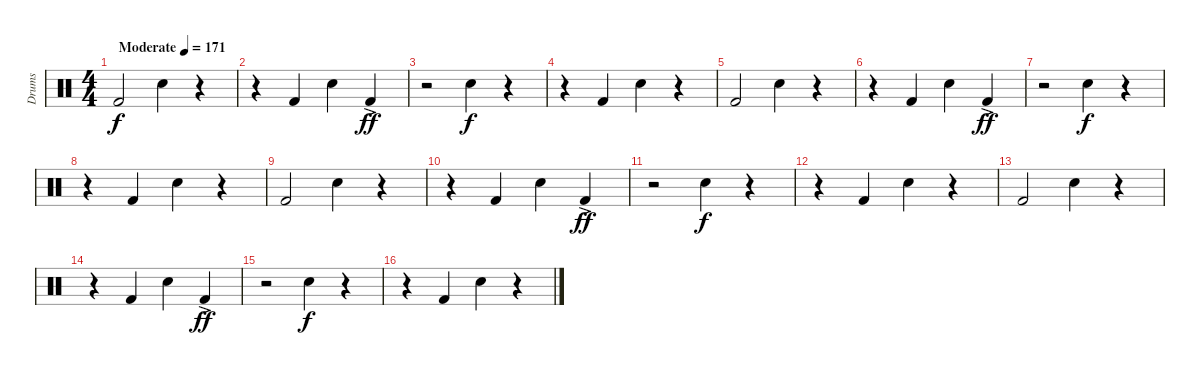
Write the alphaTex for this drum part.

\track ("Drums" "Drums") {instrument percussion}
\staff {score}
\articulation defaults
\ts (4 4)
\tempo (171 "Moderate")
\clef neutral
\ks c "Kick (hit) 2".2{dy f} "Snare (hit) 2".4
r.4 |
r.4 "Kick (hit) 2".4 "Snare (hit) 2".4 "Kick (hit) 2"{ac}.4{dy ff} |
r.2 "Snare (hit) 2".4{dy f} r.4 |
r.4 "Kick (hit) 2".4 "Snare (hit) 2".4 r.4 |
"Kick (hit) 2".2 "Snare (hit) 2".4 r.4 |
r.4 "Kick (hit) 2".4 "Snare (hit) 2".4 "Kick (hit) 2"{ac}.4{dy ff} |
r.2 "Snare (hit) 2".4{dy f} r.4 |
r.4 "Kick (hit) 2".4 "Snare (hit) 2".4 r.4 |
"Kick (hit) 2".2 "Snare (hit) 2".4 r.4 |
r.4 "Kick (hit) 2".4 "Snare (hit) 2".4 "Kick (hit) 2"{ac}.4{dy ff} |
r.2 "Snare (hit) 2".4{dy f} r.4 |
r.4 "Kick (hit) 2".4 "Snare (hit) 2".4 r.4 |
"Kick (hit) 2".2 "Snare (hit) 2".4 r.4 |
r.4 "Kick (hit) 2".4 "Snare (hit) 2".4 "Kick (hit) 2"{ac}.4{dy ff} |
r.2 "Snare (hit) 2".4{dy f} r.4 |
r.4 "Kick (hit) 2".4 "Snare (hit) 2".4 r.4
